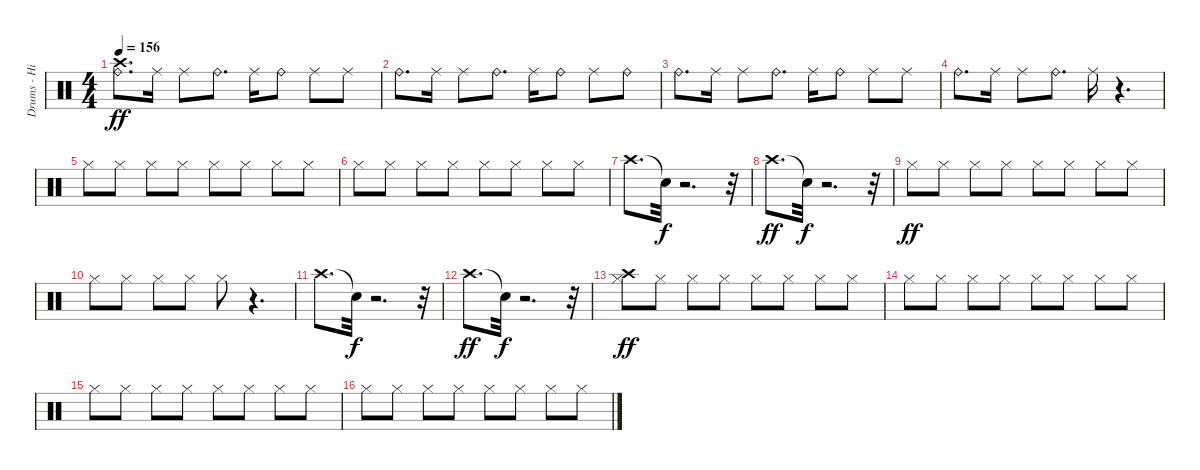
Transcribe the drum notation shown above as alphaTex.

\track ("Drums - Hi Hat/Cymbals" "Drums - Hi") {instrument percussion}
\staff {score}
\articulation defaults
\ts (4 4)
\tempo 156
\clef neutral
\ks c
("Crash high (hit)" "Ride (bell)").8{d dy ff} "Ride (middle)".16 "Ride (middle)".8 "Ride (bell)".8{d} "Ride (middle)".16 "Ride (bell)".8 "Ride (middle)".8 "Ride (middle)".8 |
"Ride (bell)".8{d} "Ride (middle)".16 "Ride (middle)".8 "Ride (bell)".8{d} "Ride (middle)".16 "Ride (bell)".8 "Ride (middle)".8 "Ride (bell)".8 |
"Ride (bell)".8{d} "Ride (middle)".16 "Ride (middle)".8 "Ride (bell)".8{d} "Ride (middle)".16 "Ride (bell)".8 "Ride (middle)".8 "Ride (middle)".8 |
"Ride (bell)".8{d} "Ride (middle)".16 "Ride (middle)".8 "Ride (bell)".8{d} "Ride (middle)".16 r.4{d} |
"Hi-Hat (closed)".8 "Hi-Hat (closed)".8 "Hi-Hat (closed)".8 "Hi-Hat (closed)".8 "Hi-Hat (closed)".8 "Hi-Hat (closed)".8 "Hi-Hat (closed)".8 "Hi-Hat (closed)".8 |
"Hi-Hat (closed)".8 "Hi-Hat (closed)".8 "Hi-Hat (closed)".8 "Hi-Hat (closed)".8 "Hi-Hat (closed)".8 "Hi-Hat (closed)".8 "Hi-Hat (closed)".8 "Hi-Hat (closed)".8 |
"Crash high (hit)".8{d} "Snare (hit)"{t}.32{dy f} r.2{d} r.32 |
"Crash high (hit)".8{d dy ff} "Snare (hit)"{t}.32{dy f} r.2{d} r.32 |
"Hi-Hat (closed)".8{dy ff} "Hi-Hat (closed)".8 "Hi-Hat (closed)".8 "Hi-Hat (closed)".8 "Hi-Hat (closed)".8 "Hi-Hat (closed)".8 "Hi-Hat (closed)".8 "Hi-Hat (closed)".8 |
"Hi-Hat (closed)".8 "Hi-Hat (closed)".8 "Hi-Hat (closed)".8 "Hi-Hat (closed)".8 "Hi-Hat (closed)".8 r.4{d} |
"Crash high (hit)".8{d} "Snare (hit)"{t}.32{dy f} r.2{d} r.32 |
"Crash high (hit)".8{d dy ff} "Snare (hit)"{t}.32{dy f} r.2{d} r.32 |
("Hi-Hat (closed)" "Crash high (hit)").8{dy ff} "Hi-Hat (closed)".8 "Hi-Hat (closed)".8 "Hi-Hat (closed)".8 "Hi-Hat (closed)".8 "Hi-Hat (closed)".8 "Hi-Hat (closed)".8 "Hi-Hat (closed)".8 |
"Hi-Hat (closed)".8 "Hi-Hat (closed)".8 "Hi-Hat (closed)".8 "Hi-Hat (closed)".8 "Hi-Hat (closed)".8 "Hi-Hat (closed)".8 "Hi-Hat (closed)".8 "Hi-Hat (closed)".8 |
"Hi-Hat (closed)".8 "Hi-Hat (closed)".8 "Hi-Hat (closed)".8 "Hi-Hat (closed)".8 "Hi-Hat (closed)".8 "Hi-Hat (closed)".8 "Hi-Hat (closed)".8 "Hi-Hat (closed)".8 |
"Hi-Hat (closed)".8 "Hi-Hat (closed)".8 "Hi-Hat (closed)".8 "Hi-Hat (closed)".8 "Hi-Hat (closed)".8 "Hi-Hat (closed)".8 "Hi-Hat (closed)".8 "Hi-Hat (closed)".8
